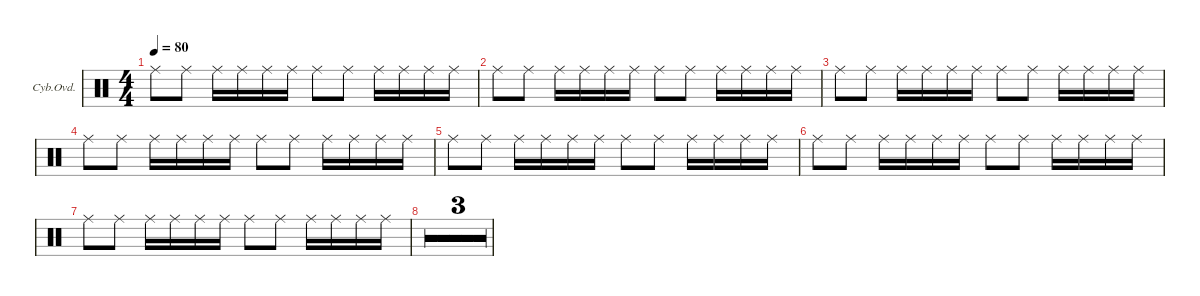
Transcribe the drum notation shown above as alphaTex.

\defaultSystemsLayout 4
\hideDynamics
\bracketExtendMode groupsimilarinstruments
\firstSystemTrackNameOrientation horizontal
\otherSystemsTrackNameOrientation horizontal
\track ("Cymbal Overdub" "Cyb.Ovd.") {multiBarRest instrument percussion}
\staff {score}
\articulation defaults
\ts (4 4)
\tempo 80
\clef neutral
\ks c "Ride (middle)".8{dy p} "Ride (middle)".8 "Ride (middle)".16 "Ride (middle)".16 "Ride (middle)".16 "Ride (middle)".16 "Ride (middle)".8 "Ride (middle)".8 "Ride (middle)".16 "Ride (middle)".16 "Ride (middle)".16 "Ride (middle)".16
|
"Ride (middle)".8 "Ride (middle)".8 "Ride (middle)".16 "Ride (middle)".16 "Ride (middle)".16 "Ride (middle)".16 "Ride (middle)".8 "Ride (middle)".8 "Ride (middle)".16 "Ride (middle)".16 "Ride (middle)".16 "Ride (middle)".16 |
"Ride (middle)".8 "Ride (middle)".8 "Ride (middle)".16 "Ride (middle)".16 "Ride (middle)".16 "Ride (middle)".16 "Ride (middle)".8 "Ride (middle)".8 "Ride (middle)".16 "Ride (middle)".16 "Ride (middle)".16 "Ride (middle)".16 |
"Ride (middle)".8 "Ride (middle)".8 "Ride (middle)".16 "Ride (middle)".16 "Ride (middle)".16 "Ride (middle)".16 "Ride (middle)".8 "Ride (middle)".8 "Ride (middle)".16 "Ride (middle)".16 "Ride (middle)".16 "Ride (middle)".16 |
"Ride (middle)".8 "Ride (middle)".8 "Ride (middle)".16 "Ride (middle)".16 "Ride (middle)".16 "Ride (middle)".16 "Ride (middle)".8 "Ride (middle)".8 "Ride (middle)".16 "Ride (middle)".16 "Ride (middle)".16 "Ride (middle)".16 |
"Ride (middle)".8 "Ride (middle)".8 "Ride (middle)".16 "Ride (middle)".16 "Ride (middle)".16 "Ride (middle)".16 "Ride (middle)".8 "Ride (middle)".8 "Ride (middle)".16 "Ride (middle)".16 "Ride (middle)".16 "Ride (middle)".16 |
"Ride (middle)".8 "Ride (middle)".8 "Ride (middle)".16 "Ride (middle)".16 "Ride (middle)".16 "Ride (middle)".16 "Ride (middle)".8 "Ride (middle)".8 "Ride (middle)".16 "Ride (middle)".16 "Ride (middle)".16 "Ride (middle)".16 |
r.1 |
r.1 |
r.1
